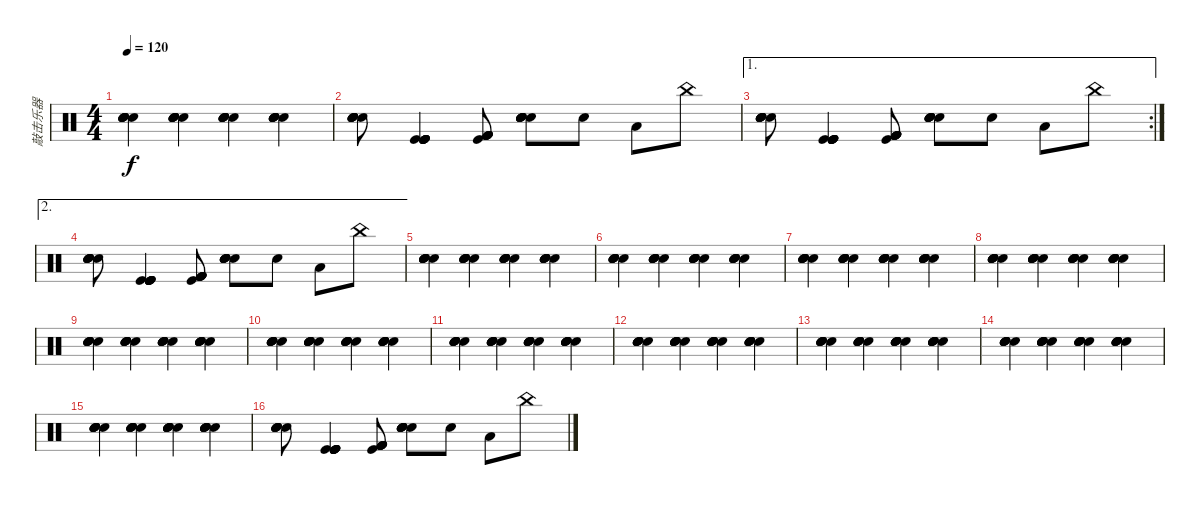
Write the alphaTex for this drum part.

\track ("敲击乐器" "敲击乐器") {instrument percussion}
\staff {score}
\articulation defaults
\ts (4 4)
\tempo 120
\clef neutral
\ks c
("Hand Clap (hit)" "Hand Clap (hit)" "Hand Clap (hit)" "Hand Clap (hit)" "Hand Clap (hit)" "Hand Clap (hit)").4{dy f} ("Snare (hit) 2" "Snare (hit) 2" "Snare (hit) 2" "Snare (hit) 2" "Snare (hit) 2" "Snare (hit) 2").4 ("Hand Clap (hit)" "Hand Clap (hit)" "Hand Clap (hit)" "Hand Clap (hit)" "Hand Clap (hit)" "Hand Clap (hit)").4 ("Snare (hit) 2" "Snare (hit) 2" "Snare (hit) 2" "Snare (hit) 2" "Snare (hit) 2" "Snare (hit) 2").4 |
("Snare (hit) 2" "Hand Clap (hit)" "Hand Clap (hit)" "Hand Clap (hit)" "Hand Clap (hit)" "Hand Clap (hit)").8 ("Kick (hit)" "Kick (hit)" "Kick (hit)" "Kick (hit)" "Kick (hit)" "Kick (hit)").4 ("Kick (hit) 2" "Kick (hit) 2" "Kick (hit) 2" "Kick (hit)" "Kick (hit) 2" "Kick (hit) 2").8 ("Snare (hit) 2" "Snare (hit) 2" "Snare (hit) 2" "Snare (hit) 2" "Snare (hit) 2" "Snare (hit) 2").8 "Snare (hit) 2".8 "Low Floor Tom (hit)".8 "China (hit)".8 |
\ae 1
\rc 2
("Snare (hit) 2" "Hand Clap (hit)" "Hand Clap (hit)" "Hand Clap (hit)" "Hand Clap (hit)" "Hand Clap (hit)").8 ("Kick (hit)" "Kick (hit)" "Kick (hit)" "Kick (hit)" "Kick (hit)" "Kick (hit)").4 ("Kick (hit) 2" "Kick (hit) 2" "Kick (hit) 2" "Kick (hit)" "Kick (hit) 2" "Kick (hit) 2").8 ("Snare (hit) 2" "Snare (hit) 2" "Snare (hit) 2" "Snare (hit) 2" "Snare (hit) 2" "Snare (hit) 2").8 "Snare (hit) 2".8 "Low Floor Tom (hit)".8 "China (hit)".8 |
\ae 2
("Snare (hit) 2" "Hand Clap (hit)" "Hand Clap (hit)" "Hand Clap (hit)" "Hand Clap (hit)" "Hand Clap (hit)").8 ("Kick (hit)" "Kick (hit)" "Kick (hit)" "Kick (hit)" "Kick (hit)" "Kick (hit)").4 ("Kick (hit) 2" "Kick (hit) 2" "Kick (hit) 2" "Kick (hit)" "Kick (hit) 2" "Kick (hit) 2").8 ("Snare (hit) 2" "Snare (hit) 2" "Snare (hit) 2" "Snare (hit) 2" "Snare (hit) 2" "Snare (hit) 2").8 "Snare (hit) 2".8 "Low Floor Tom (hit)".8 "China (hit)".8 |
("Hand Clap (hit)" "Hand Clap (hit)" "Hand Clap (hit)" "Hand Clap (hit)" "Hand Clap (hit)" "Hand Clap (hit)").4 ("Snare (hit) 2" "Snare (hit) 2" "Snare (hit) 2" "Snare (hit) 2" "Snare (hit) 2" "Snare (hit) 2").4 ("Hand Clap (hit)" "Hand Clap (hit)" "Hand Clap (hit)" "Hand Clap (hit)" "Hand Clap (hit)" "Hand Clap (hit)").4 ("Snare (hit) 2" "Snare (hit) 2" "Snare (hit) 2" "Snare (hit) 2" "Snare (hit) 2" "Snare (hit) 2").4 |
("Hand Clap (hit)" "Hand Clap (hit)" "Hand Clap (hit)" "Hand Clap (hit)" "Hand Clap (hit)" "Hand Clap (hit)").4 ("Snare (hit) 2" "Snare (hit) 2" "Snare (hit) 2" "Snare (hit) 2" "Snare (hit) 2" "Snare (hit) 2").4 ("Hand Clap (hit)" "Hand Clap (hit)" "Hand Clap (hit)" "Hand Clap (hit)" "Hand Clap (hit)" "Hand Clap (hit)").4 ("Snare (hit) 2" "Snare (hit) 2" "Snare (hit) 2" "Snare (hit) 2" "Snare (hit) 2" "Snare (hit) 2").4 |
("Hand Clap (hit)" "Hand Clap (hit)" "Hand Clap (hit)" "Hand Clap (hit)" "Hand Clap (hit)" "Hand Clap (hit)").4 ("Snare (hit) 2" "Snare (hit) 2" "Snare (hit) 2" "Snare (hit) 2" "Snare (hit) 2" "Snare (hit) 2").4 ("Hand Clap (hit)" "Hand Clap (hit)" "Hand Clap (hit)" "Hand Clap (hit)" "Hand Clap (hit)" "Hand Clap (hit)").4 ("Snare (hit) 2" "Snare (hit) 2" "Snare (hit) 2" "Snare (hit) 2" "Snare (hit) 2" "Snare (hit) 2").4 |
("Hand Clap (hit)" "Hand Clap (hit)" "Hand Clap (hit)" "Hand Clap (hit)" "Hand Clap (hit)" "Hand Clap (hit)").4 ("Snare (hit) 2" "Snare (hit) 2" "Snare (hit) 2" "Snare (hit) 2" "Snare (hit) 2" "Snare (hit) 2").4 ("Hand Clap (hit)" "Hand Clap (hit)" "Hand Clap (hit)" "Hand Clap (hit)" "Hand Clap (hit)" "Hand Clap (hit)").4 ("Snare (hit) 2" "Snare (hit) 2" "Snare (hit) 2" "Snare (hit) 2" "Snare (hit) 2" "Snare (hit) 2").4 |
("Hand Clap (hit)" "Hand Clap (hit)" "Hand Clap (hit)" "Hand Clap (hit)" "Hand Clap (hit)" "Hand Clap (hit)").4 ("Snare (hit) 2" "Snare (hit) 2" "Snare (hit) 2" "Snare (hit) 2" "Snare (hit) 2" "Snare (hit) 2").4 ("Hand Clap (hit)" "Hand Clap (hit)" "Hand Clap (hit)" "Hand Clap (hit)" "Hand Clap (hit)" "Hand Clap (hit)").4 ("Snare (hit) 2" "Snare (hit) 2" "Snare (hit) 2" "Snare (hit) 2" "Snare (hit) 2" "Snare (hit) 2").4 |
("Hand Clap (hit)" "Hand Clap (hit)" "Hand Clap (hit)" "Hand Clap (hit)" "Hand Clap (hit)" "Hand Clap (hit)").4 ("Snare (hit) 2" "Snare (hit) 2" "Snare (hit) 2" "Snare (hit) 2" "Snare (hit) 2" "Snare (hit) 2").4 ("Hand Clap (hit)" "Hand Clap (hit)" "Hand Clap (hit)" "Hand Clap (hit)" "Hand Clap (hit)" "Hand Clap (hit)").4 ("Snare (hit) 2" "Snare (hit) 2" "Snare (hit) 2" "Snare (hit) 2" "Snare (hit) 2" "Snare (hit) 2").4 |
("Hand Clap (hit)" "Hand Clap (hit)" "Hand Clap (hit)" "Hand Clap (hit)" "Hand Clap (hit)" "Hand Clap (hit)").4 ("Snare (hit) 2" "Snare (hit) 2" "Snare (hit) 2" "Snare (hit) 2" "Snare (hit) 2" "Snare (hit) 2").4 ("Hand Clap (hit)" "Hand Clap (hit)" "Hand Clap (hit)" "Hand Clap (hit)" "Hand Clap (hit)" "Hand Clap (hit)").4 ("Snare (hit) 2" "Snare (hit) 2" "Snare (hit) 2" "Snare (hit) 2" "Snare (hit) 2" "Snare (hit) 2").4 |
("Hand Clap (hit)" "Hand Clap (hit)" "Hand Clap (hit)" "Hand Clap (hit)" "Hand Clap (hit)" "Hand Clap (hit)").4 ("Snare (hit) 2" "Snare (hit) 2" "Snare (hit) 2" "Snare (hit) 2" "Snare (hit) 2" "Snare (hit) 2").4 ("Hand Clap (hit)" "Hand Clap (hit)" "Hand Clap (hit)" "Hand Clap (hit)" "Hand Clap (hit)" "Hand Clap (hit)").4 ("Snare (hit) 2" "Snare (hit) 2" "Snare (hit) 2" "Snare (hit) 2" "Snare (hit) 2" "Snare (hit) 2").4 |
("Hand Clap (hit)" "Hand Clap (hit)" "Hand Clap (hit)" "Hand Clap (hit)" "Hand Clap (hit)" "Hand Clap (hit)").4 ("Snare (hit) 2" "Snare (hit) 2" "Snare (hit) 2" "Snare (hit) 2" "Snare (hit) 2" "Snare (hit) 2").4 ("Hand Clap (hit)" "Hand Clap (hit)" "Hand Clap (hit)" "Hand Clap (hit)" "Hand Clap (hit)" "Hand Clap (hit)").4 ("Snare (hit) 2" "Snare (hit) 2" "Snare (hit) 2" "Snare (hit) 2" "Snare (hit) 2" "Snare (hit) 2").4 |
("Hand Clap (hit)" "Hand Clap (hit)" "Hand Clap (hit)" "Hand Clap (hit)" "Hand Clap (hit)" "Hand Clap (hit)").4 ("Snare (hit) 2" "Snare (hit) 2" "Snare (hit) 2" "Snare (hit) 2" "Snare (hit) 2" "Snare (hit) 2").4 ("Hand Clap (hit)" "Hand Clap (hit)" "Hand Clap (hit)" "Hand Clap (hit)" "Hand Clap (hit)" "Hand Clap (hit)").4 ("Snare (hit) 2" "Snare (hit) 2" "Snare (hit) 2" "Snare (hit) 2" "Snare (hit) 2" "Snare (hit) 2").4 |
("Hand Clap (hit)" "Hand Clap (hit)" "Hand Clap (hit)" "Hand Clap (hit)" "Hand Clap (hit)" "Hand Clap (hit)").4 ("Snare (hit) 2" "Snare (hit) 2" "Snare (hit) 2" "Snare (hit) 2" "Snare (hit) 2" "Snare (hit) 2").4 ("Hand Clap (hit)" "Hand Clap (hit)" "Hand Clap (hit)" "Hand Clap (hit)" "Hand Clap (hit)" "Hand Clap (hit)").4 ("Snare (hit) 2" "Snare (hit) 2" "Snare (hit) 2" "Snare (hit) 2" "Snare (hit) 2" "Snare (hit) 2").4 |
("Snare (hit) 2" "Hand Clap (hit)" "Hand Clap (hit)" "Hand Clap (hit)" "Hand Clap (hit)" "Hand Clap (hit)").8 ("Kick (hit)" "Kick (hit)" "Kick (hit)" "Kick (hit)" "Kick (hit)" "Kick (hit)").4 ("Kick (hit) 2" "Kick (hit) 2" "Kick (hit) 2" "Kick (hit)" "Kick (hit) 2" "Kick (hit) 2").8 ("Snare (hit) 2" "Snare (hit) 2" "Snare (hit) 2" "Snare (hit) 2" "Snare (hit) 2" "Snare (hit) 2").8 "Snare (hit) 2".8 "Low Floor Tom (hit)".8 "China (hit)".8
